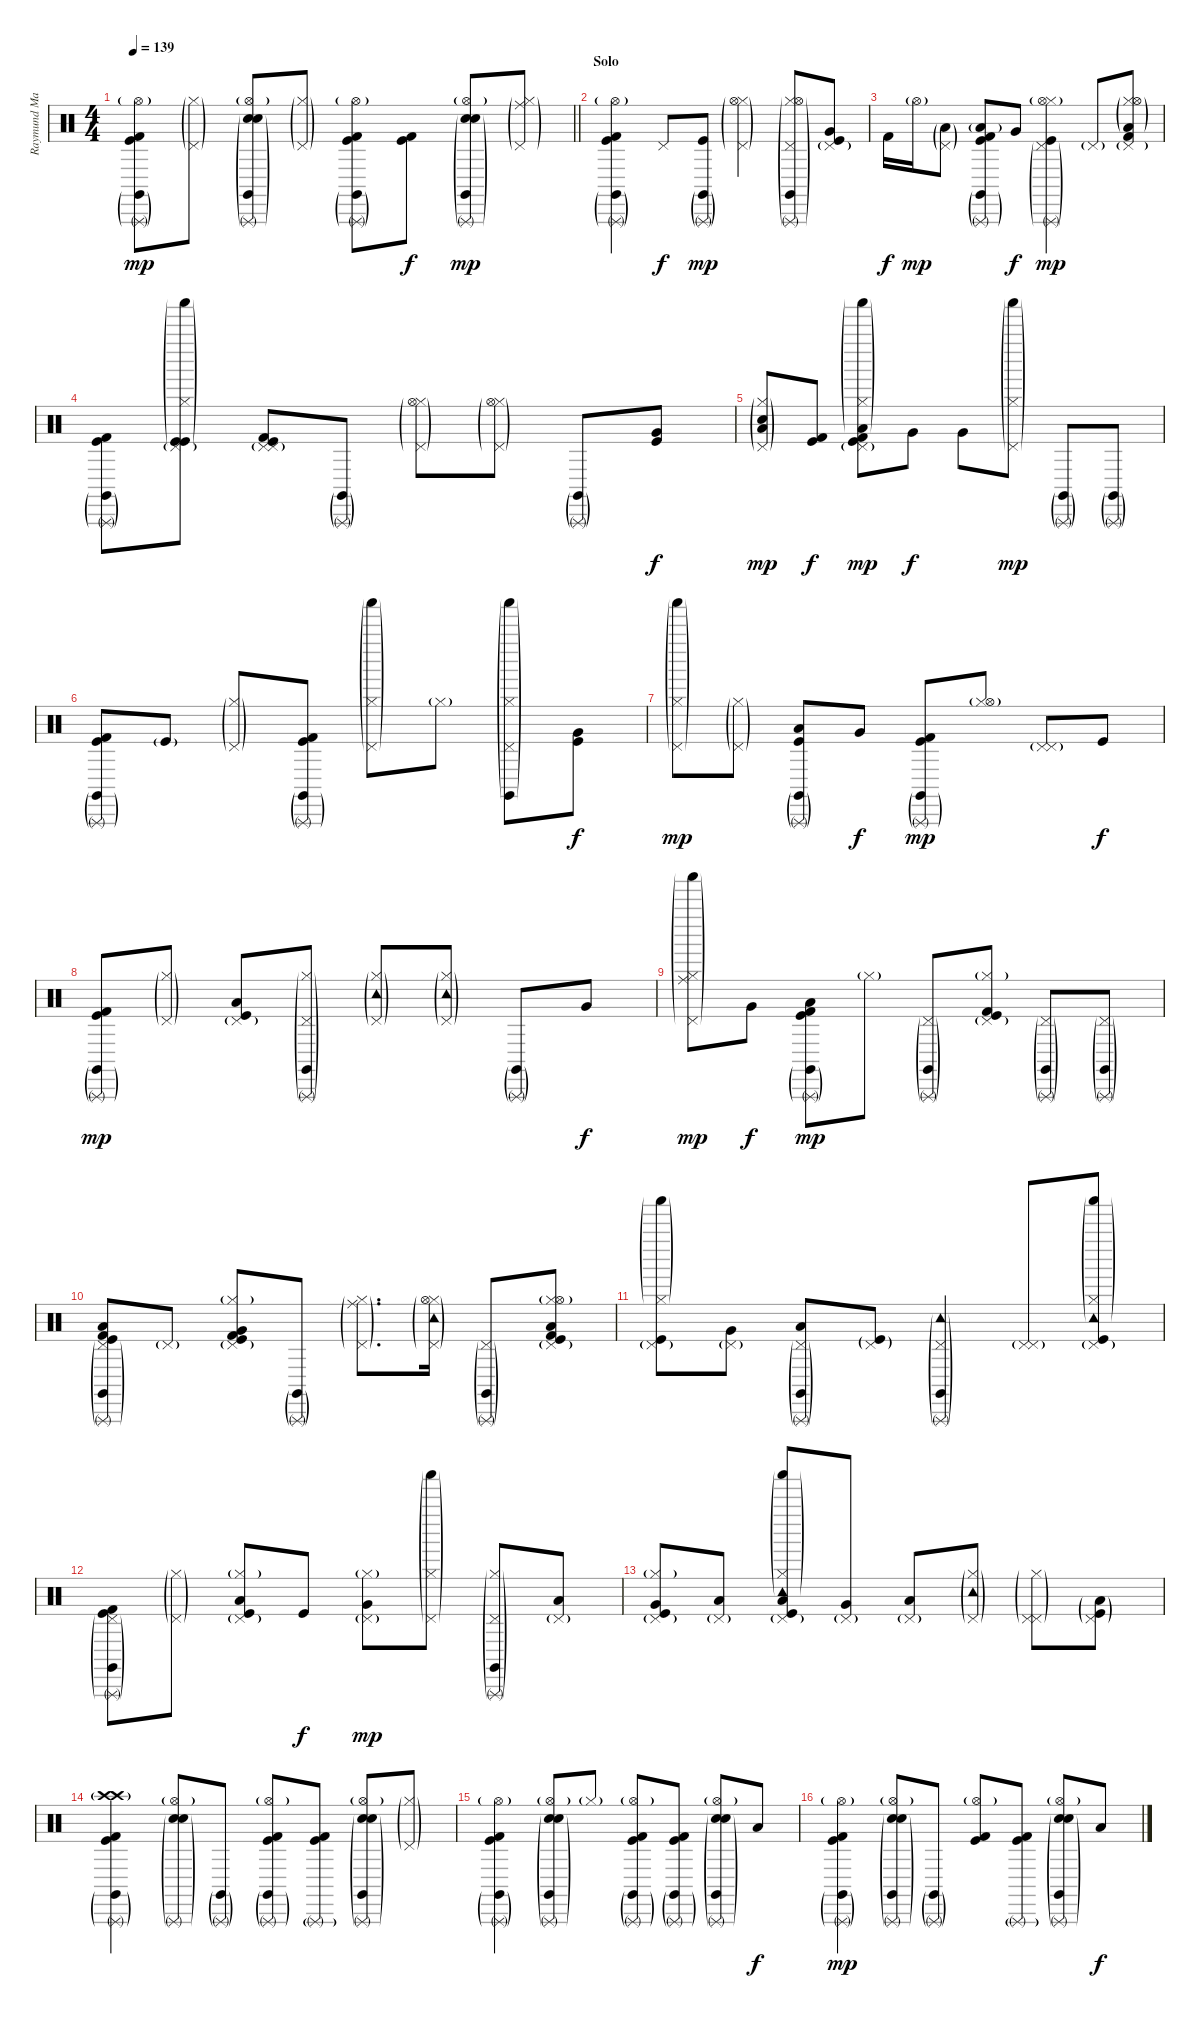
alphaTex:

\track ("Raymund Marasigan(Drums)" "Raymund Ma") {instrument percussion}
\staff {score}
\articulation defaults
\ts (4 4)
\tempo 139
\clef neutral
\barLineRight lightlight
\ks c
("Kick (hit) 2" "Kick (hit)" "Triangle (rnute)"{g} "Claves (hit)"{g} "Hi-Hat (open)"{g}).8{dy mp} ("Pedal Hi-Hat (hit)"{g} "Hi-Hat (closed)"{g}).8 ("Electric Snare (hit)" "Snare (hit) 2"{g} "Hi-Hat (open)"{g} "Triangle (rnute)"{g} "Claves (hit)"{g}).8 ("Pedal Hi-Hat (hit)"{g} "Hi-Hat (closed)"{g}).8 ("Kick (hit) 2" "Kick (hit)" "Triangle (rnute)"{g} "Claves (hit)"{g} "Hi-Hat (open)"{g}).8 ("Kick (hit) 2" "Kick (hit)").8{dy f} ("Electric Snare (hit)" "Snare (hit) 2"{g} "Hi-Hat (open)"{g} "Triangle (rnute)"{g} "Claves (hit)"{g}).8{dy mp} ("Pedal Hi-Hat (hit)"{g} "Hi-Hat (closed)"{g} "Ride (middle)"{g}).8 |
\section ("" "Solo")
("Hi-Hat (open)"{g} "Kick (hit) 2" "Kick (hit)" "Triangle (rnute)"{g} "Claves (hit)"{g}).4 "Pedal Hi-Hat (hit)".8{dy f} ("Kick (hit)" "Triangle (rnute)"{g} "Claves (hit)"{g}).8{dy mp} ("Pedal Hi-Hat (hit)"{g} "Hi-Hat (closed)"{g} "Hi-Hat (open)"{g}).4 ("Pedal Hi-Hat (hit)"{g} "Hi-Hat (closed)"{g} "Hi-Hat (open)"{g} "Triangle (rnute)"{g} "Claves (hit)"{g}).8 ("Pedal Hi-Hat (hit)"{g} "Very Low Tom (hit)" "Kick (hit)").8 |
"Kick (hit) 2".16{dy f} "Hi-Hat (open)"{g}.16{dy mp} ("Pedal Hi-Hat (hit)"{g} "Low Tom (hit)"{g}).8 ("Kick (hit) 2" "Kick (hit)" "Triangle (rnute)"{g} "Claves (hit)"{g} "Low Tom (hit)"{g}).8 "Very Low Tom (hit)".8{dy f} ("Kick (hit)" "Triangle (rnute)"{g} "Pedal Hi-Hat (hit)"{g} "Hi-Hat (closed)"{g} "Hi-Hat (open)"{g}).4{dy mp} "Pedal Hi-Hat (hit)"{g}.8 ("Pedal Hi-Hat (hit)"{g} "Hi-Hat (closed)"{g} "Hi-Hat (open)"{g} "Low Tom (hit)"{g} "Kick (hit) 2").8 |
("Kick (hit) 2" "Kick (hit)" "Triangle (rnute)"{g} "Claves (hit)"{g}).8 ("Pedal Hi-Hat (hit)"{g} "Hi-Hat (closed)"{g} "Kick (hit)"{g} "Shaker (hit)"{g} "Kick (hit)").8 ("Pedal Hi-Hat (hit)"{g} "Pedal Hi-Hat (hit)"{g} "Kick (hit) 2" "Kick (hit)").8 ("Triangle (rnute)"{g} "Claves (hit)"{g}).8 ("Pedal Hi-Hat (hit)"{g} "Hi-Hat (closed)"{g} "Hi-Hat (open)"{g}).8 ("Pedal Hi-Hat (hit)"{g} "Hi-Hat (closed)"{g} "Hi-Hat (open)"{g}).8 ("Triangle (rnute)"{g} "Claves (hit)"{g}).8 ("Very Low Tom (hit)" "Kick (hit)").8{dy f} |
("Pedal Hi-Hat (hit)"{g} "Hi-Hat (closed)"{g} "Electric Snare (hit)"{g} "Low Tom (hit)"{g}).8{dy mp} ("Kick (hit) 2" "Kick (hit)").8{dy f} ("Kick (hit) 2" "Kick (hit)" "Pedal Hi-Hat (hit)"{g} "Hi-Hat (closed)"{g} "Shaker (hit)"{g} "Low Tom (hit)"{g}).8{dy mp} "Very Low Tom (hit)".8{dy f} "Very Low Tom (hit)".8 ("Pedal Hi-Hat (hit)"{g} "Hi-Hat (closed)"{g} "Shaker (hit)"{g}).8{dy mp} ("Triangle (rnute)"{g} "Claves (hit)"{g}).8 ("Triangle (rnute)"{g} "Claves (hit)"{g}).8 |
("Kick (hit) 2" "Kick (hit)" "Triangle (rnute)"{g} "Claves (hit)"{g}).8 "Kick (hit)"{g}.8 ("Pedal Hi-Hat (hit)"{g} "Hi-Hat (closed)"{g}).8 ("Kick (hit) 2" "Kick (hit)" "Triangle (rnute)"{g} "Claves (hit)"{g}).8 ("Pedal Hi-Hat (hit)"{g} "Hi-Hat (closed)"{g} "Shaker (hit)"{g}).8 "Hi-Hat (closed)"{g}.8 ("Pedal Hi-Hat (hit)"{g} "Hi-Hat (closed)"{g} "Shaker (hit)"{g} "Claves (hit)"{g}).8 ("Very Low Tom (hit)" "Kick (hit)").8{dy f} |
("Pedal Hi-Hat (hit)"{g} "Hi-Hat (closed)"{g} "Shaker (hit)"{g}).8{bd 60 dy mp} ("Pedal Hi-Hat (hit)"{g} "Hi-Hat (closed)"{g}).8 ("Low Tom (hit)" "Kick (hit)" "Triangle (rnute)"{g} "Claves (hit)"{g}).8 "Very Low Tom (hit)".8{dy f} ("Kick (hit) 2" "Kick (hit)" "Triangle (rnute)"{g} "Claves (hit)"{g}).8{dy mp} ("Hi-Hat (closed)"{g} "Hi-Hat (open)"{g}).8 ("Pedal Hi-Hat (hit)"{g} "Pedal Hi-Hat (hit)"{g}).8 "Kick (hit)".8{dy f} |
("Kick (hit) 2" "Kick (hit)" "Triangle (rnute)"{g} "Claves (hit)"{g}).8{dy mp} ("Pedal Hi-Hat (hit)"{g} "Hi-Hat (closed)"{g}).8 ("Pedal Hi-Hat (hit)"{g} "Low Tom (hit)" "Kick (hit)").8 ("Pedal Hi-Hat (hit)"{g} "Hi-Hat (closed)"{g} "Triangle (rnute)"{g} "Claves (hit)"{g}).8 ("Pedal Hi-Hat (hit)"{g} "Hi-Hat (closed)"{g} "Tambourine (hit)"{g}).8 ("Pedal Hi-Hat (hit)"{g} "Hi-Hat (closed)"{g} "Tambourine (hit)"{g}).8 ("Triangle (rnute)"{g} "Claves (hit)"{g}).8 "Very Low Tom (hit)".8{dy f} |
("Pedal Hi-Hat (hit)"{g} "Hi-Hat (closed)"{g} "Shaker (hit)"{g} "Ride (middle)"{g}).8{dy mp} "Very Low Tom (hit)".8{dy f} ("Kick (hit) 2" "Kick (hit)" "Triangle (rnute)"{g} "Claves (hit)"{g} "Low Tom (hit)").8{dy mp} "Hi-Hat (closed)"{g}.8 ("Pedal Hi-Hat (hit)"{g} "Triangle (rnute)"{g} "Claves (hit)"{g}).8 ("Pedal Hi-Hat (hit)"{g} "Hi-Hat (closed)"{g} "Kick (hit) 2" "Kick (hit)").8{bd 60} ("Pedal Hi-Hat (hit)"{g} "Triangle (rnute)"{g} "Claves (hit)"{g}).8{bd 60} ("Pedal Hi-Hat (hit)"{g} "Triangle (rnute)"{g} "Claves (hit)"{g}).8 |
("Kick (hit) 2" "Kick (hit)" "Low Tom (hit)" "Triangle (rnute)"{g} "Claves (hit)"{g} "Pedal Hi-Hat (hit)"{g}).8 "Pedal Hi-Hat (hit)"{g}.8 ("Kick (hit) 2" "Kick (hit)" "Very Low Tom (hit)" "Pedal Hi-Hat (hit)"{g} "Hi-Hat (closed)"{g}).8 ("Triangle (rnute)"{g} "Claves (hit)"{g}).8 ("Pedal Hi-Hat (hit)"{g} "Hi-Hat (closed)"{g} "Ride (middle)"{g}).8{d} ("Pedal Hi-Hat (hit)"{g} "Hi-Hat (closed)"{g} "Tambourine (hit)"{g} "Hi-Hat (open)"{g}).16 ("Triangle (rnute)"{g} "Claves (hit)"{g} "Pedal Hi-Hat (hit)"{g}).8 ("Kick (hit) 2" "Kick (hit)" "Low Tom (hit)" "Pedal Hi-Hat (hit)"{g} "Hi-Hat (closed)"{g} "Hi-Hat (open)"{g}).8 |
("Kick (hit)" "Pedal Hi-Hat (hit)"{g} "Hi-Hat (closed)"{g} "Shaker (hit)"{g}).8{bd 60} ("Very Low Tom (hit)" "Pedal Hi-Hat (hit)"{g}).8 ("Low Tom (hit)" "Pedal Hi-Hat (hit)"{g} "Triangle (rnute)"{g} "Claves (hit)"{g}).8 ("Pedal Hi-Hat (hit)"{g} "Kick (hit)"{g}).8 ("Pedal Hi-Hat (hit)"{g} "Triangle (rnute)"{g} "Claves (hit)"{g} "Tambourine (hit)"{g}).4 ("Pedal Hi-Hat (hit)"{g} "Pedal Hi-Hat (hit)"{g}).8 ("Pedal Hi-Hat (hit)"{g} "Hi-Hat (closed)"{g} "Shaker (hit)"{g} "Tambourine (hit)"{g} "Kick (hit)").8 |
("Kick (hit) 2" "Kick (hit)" "Triangle (rnute)"{g} "Claves (hit)"{g} "Pedal Hi-Hat (hit)"{g}).8 ("Pedal Hi-Hat (hit)"{g} "Hi-Hat (closed)"{g}).8 ("Pedal Hi-Hat (hit)"{g} "Hi-Hat (closed)"{g} "Low Tom (hit)" "Kick (hit)").8 "Kick (hit)".8{dy f} ("Pedal Hi-Hat (hit)"{g} "Hi-Hat (closed)"{g} "Very Low Tom (hit)").8{dy mp} ("Pedal Hi-Hat (hit)"{g} "Hi-Hat (closed)"{g} "Shaker (hit)"{g}).8 ("Pedal Hi-Hat (hit)"{g} "Hi-Hat (closed)"{g} "Triangle (rnute)"{g} "Claves (hit)"{g}).8 ("Pedal Hi-Hat (hit)"{g} "Low Tom (hit)").8 |
("Pedal Hi-Hat (hit)"{g} "Hi-Hat (closed)"{g} "Very Low Tom (hit)" "Kick (hit)").8 ("Pedal Hi-Hat (hit)"{g} "Low Tom (hit)").8 ("Kick (hit)" "Low Tom (hit)" "Pedal Hi-Hat (hit)"{g} "Hi-Hat (closed)"{g} "Shaker (hit)"{g} "Tambourine (hit)"{g}).8 ("Pedal Hi-Hat (hit)"{g} "Very Low Tom (hit)").8 ("Pedal Hi-Hat (hit)"{g} "Low Floor Tom (hit)").8 ("Pedal Hi-Hat (hit)"{g} "Hi-Hat (closed)"{g} "Tambourine (hit)"{g}).8 ("Pedal Hi-Hat (hit)"{g} "Pedal Hi-Hat (hit)"{g} "Hi-Hat (closed)"{g}).8 ("Pedal Hi-Hat (hit)"{g} "Kick (hit)"{g} "Low Tom (hit)"{g}).8 |
("Crash high (hit)"{g} "Crash high (hit)"{g} "Kick (hit) 2" "Kick (hit)" "Triangle (rnute)"{g} "Claves (hit)"{g}).4 ("Electric Snare (hit)" "Snare (hit) 2"{g} "Hi-Hat (open)"{g} "Triangle (rnute)"{g}).8 ("Triangle (rnute)"{g} "Claves (hit)"{g}).8 ("Kick (hit) 2" "Kick (hit)" "Hi-Hat (open)"{g} "Triangle (rnute)"{g} "Claves (hit)"{g}).8 ("Kick (hit) 2" "Kick (hit)" "Triangle (rnute)"{g}).8 ("Electric Snare (hit)" "Snare (hit) 2"{g} "Hi-Hat (open)"{g} "Triangle (rnute)"{g} "Claves (hit)"{g}).8 ("Pedal Hi-Hat (hit)"{g} "Hi-Hat (closed)"{g}).8 |
("Triangle (rnute)"{g} "Claves (hit)"{g} "Kick (hit) 2" "Kick (hit)" "Hi-Hat (open)"{g}).4 ("Electric Snare (hit)" "Snare (hit) 2"{g} "Hi-Hat (open)"{g} "Triangle (rnute)"{g} "Claves (hit)"{g}).8 "Hi-Hat (closed)"{g}.8 ("Triangle (rnute)"{g} "Claves (hit)"{g} "Kick (hit) 2" "Kick (hit)" "Hi-Hat (open)"{g}).8 ("Triangle (rnute)"{g} "Claves (hit)"{g} "Kick (hit) 2" "Kick (hit)").8 ("Electric Snare (hit)" "Snare (hit) 2"{g} "Hi-Hat (open)"{g} "Triangle (rnute)"{g} "Claves (hit)"{g}).8 "Low Tom (hit)".8{dy f} |
("Triangle (rnute)"{g} "Claves (hit)"{g} "Kick (hit) 2" "Kick (hit)" "Hi-Hat (open)"{g}).4{dy mp} ("Electric Snare (hit)" "Snare (hit) 2"{g} "Hi-Hat (open)"{g} "Triangle (rnute)"{g} "Claves (hit)"{g}).8 ("Triangle (rnute)"{g} "Claves (hit)"{g}).8 ("Kick (hit) 2" "Kick (hit)" "Hi-Hat (open)"{g}).8 ("Kick (hit) 2" "Kick (hit)" "Triangle (rnute)"{g}).8 ("Electric Snare (hit)" "Snare (hit) 2"{g} "Hi-Hat (open)"{g} "Triangle (rnute)"{g} "Claves (hit)"{g}).8 "Low Tom (hit)".8{dy f}
